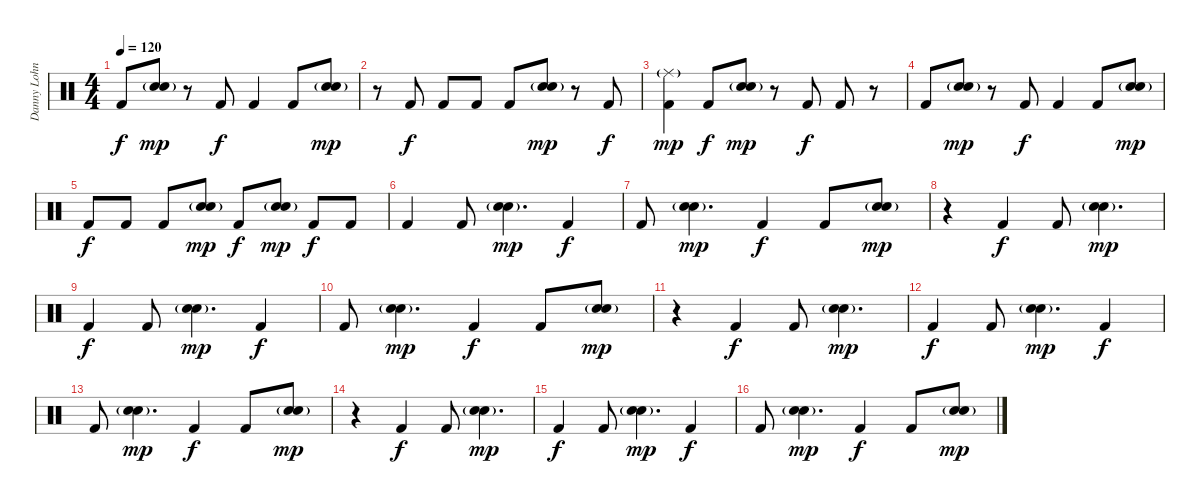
\track ("Danny Lohner" "Danny Lohn") {instrument percussion}
\staff {score}
\articulation defaults
\ts (4 4)
\tempo 120
\clef neutral
\ks c "Kick (hit) 2".8{dy f}
("Hand Clap (hit)"{g} "Electric Snare (hit)"{g}).8{dy mp} r.8 "Kick (hit) 2".8{dy f} "Kick (hit) 2".4 "Kick (hit) 2".8 ("Hand Clap (hit)"{g} "Electric Snare (hit)"{g}).8{dy mp} |
r.8 "Kick (hit) 2".8{dy f} "Kick (hit) 2".8 "Kick (hit) 2".8 "Kick (hit) 2".8 ("Hand Clap (hit)"{g} "Electric Snare (hit)"{g}).8{dy mp} r.8 "Kick (hit) 2".8{dy f} |
("Ride (middle)"{g} "Kick (hit) 2").4{dy mp} "Kick (hit) 2".8{dy f} ("Hand Clap (hit)"{g} "Electric Snare (hit)"{g}).8{dy mp} r.8 "Kick (hit) 2".8{dy f} "Kick (hit) 2".8 r.8 |
"Kick (hit) 2".8 ("Hand Clap (hit)"{g} "Electric Snare (hit)"{g}).8{dy mp} r.8 "Kick (hit) 2".8{dy f} "Kick (hit) 2".4 "Kick (hit) 2".8 ("Hand Clap (hit)"{g} "Electric Snare (hit)"{g}).8{dy mp} |
"Kick (hit) 2".8{dy f} "Kick (hit) 2".8 "Kick (hit) 2".8 ("Hand Clap (hit)"{g} "Electric Snare (hit)"{g}).8{dy mp} "Kick (hit) 2".8{dy f} ("Hand Clap (hit)"{g} "Electric Snare (hit)"{g}).8{dy mp} "Kick (hit) 2".8{dy f} "Kick (hit) 2".8 |
"Kick (hit) 2".4 "Kick (hit) 2".8 ("Hand Clap (hit)"{g} "Electric Snare (hit)"{g}).4{d dy mp} "Kick (hit) 2".4{dy f} |
"Kick (hit) 2".8 ("Hand Clap (hit)"{g} "Electric Snare (hit)"{g}).4{d dy mp} "Kick (hit) 2".4{dy f} "Kick (hit) 2".8 ("Hand Clap (hit)"{g} "Electric Snare (hit)"{g}).8{dy mp} |
r.4 "Kick (hit) 2".4{dy f} "Kick (hit) 2".8 ("Hand Clap (hit)"{g} "Electric Snare (hit)"{g}).4{d dy mp} |
"Kick (hit) 2".4{dy f} "Kick (hit) 2".8 ("Hand Clap (hit)"{g} "Electric Snare (hit)"{g}).4{d dy mp} "Kick (hit) 2".4{dy f} |
"Kick (hit) 2".8 ("Hand Clap (hit)"{g} "Electric Snare (hit)"{g}).4{d dy mp} "Kick (hit) 2".4{dy f} "Kick (hit) 2".8 ("Hand Clap (hit)"{g} "Electric Snare (hit)"{g}).8{dy mp} |
r.4 "Kick (hit) 2".4{dy f} "Kick (hit) 2".8 ("Hand Clap (hit)"{g} "Electric Snare (hit)"{g}).4{d dy mp} |
"Kick (hit) 2".4{dy f} "Kick (hit) 2".8 ("Hand Clap (hit)"{g} "Electric Snare (hit)"{g}).4{d dy mp} "Kick (hit) 2".4{dy f} |
"Kick (hit) 2".8 ("Hand Clap (hit)"{g} "Electric Snare (hit)"{g}).4{d dy mp} "Kick (hit) 2".4{dy f} "Kick (hit) 2".8 ("Hand Clap (hit)"{g} "Electric Snare (hit)"{g}).8{dy mp} |
r.4 "Kick (hit) 2".4{dy f} "Kick (hit) 2".8 ("Hand Clap (hit)"{g} "Electric Snare (hit)"{g}).4{d dy mp} |
"Kick (hit) 2".4{dy f} "Kick (hit) 2".8 ("Hand Clap (hit)"{g} "Electric Snare (hit)"{g}).4{d dy mp} "Kick (hit) 2".4{dy f} |
"Kick (hit) 2".8 ("Hand Clap (hit)"{g} "Electric Snare (hit)"{g}).4{d dy mp} "Kick (hit) 2".4{dy f} "Kick (hit) 2".8 ("Hand Clap (hit)"{g} "Electric Snare (hit)"{g}).8{dy mp}
